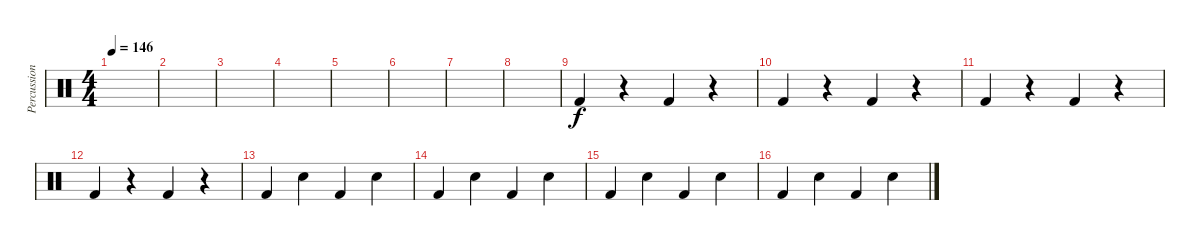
\track ("Percussion" "Percussion") {instrument percussion}
\staff {score}
\articulation defaults
\ts (4 4)
\tempo 146
\clef neutral
\ks c
|
|
|
|
|
|
|
|
"Kick (hit) 2".4 r.4 "Kick (hit) 2".4 r.4 |
"Kick (hit) 2".4 r.4 "Kick (hit) 2".4 r.4 |
"Kick (hit) 2".4 r.4 "Kick (hit) 2".4 r.4 |
"Kick (hit) 2".4 r.4 "Kick (hit) 2".4 r.4 |
"Kick (hit) 2".4 "Electric Snare (hit)".4 "Kick (hit) 2".4 "Electric Snare (hit)".4 |
"Kick (hit) 2".4 "Electric Snare (hit)".4 "Kick (hit) 2".4 "Electric Snare (hit)".4 |
"Kick (hit) 2".4 "Electric Snare (hit)".4 "Kick (hit) 2".4 "Electric Snare (hit)".4 |
"Kick (hit) 2".4 "Electric Snare (hit)".4 "Kick (hit) 2".4 "Electric Snare (hit)".4
